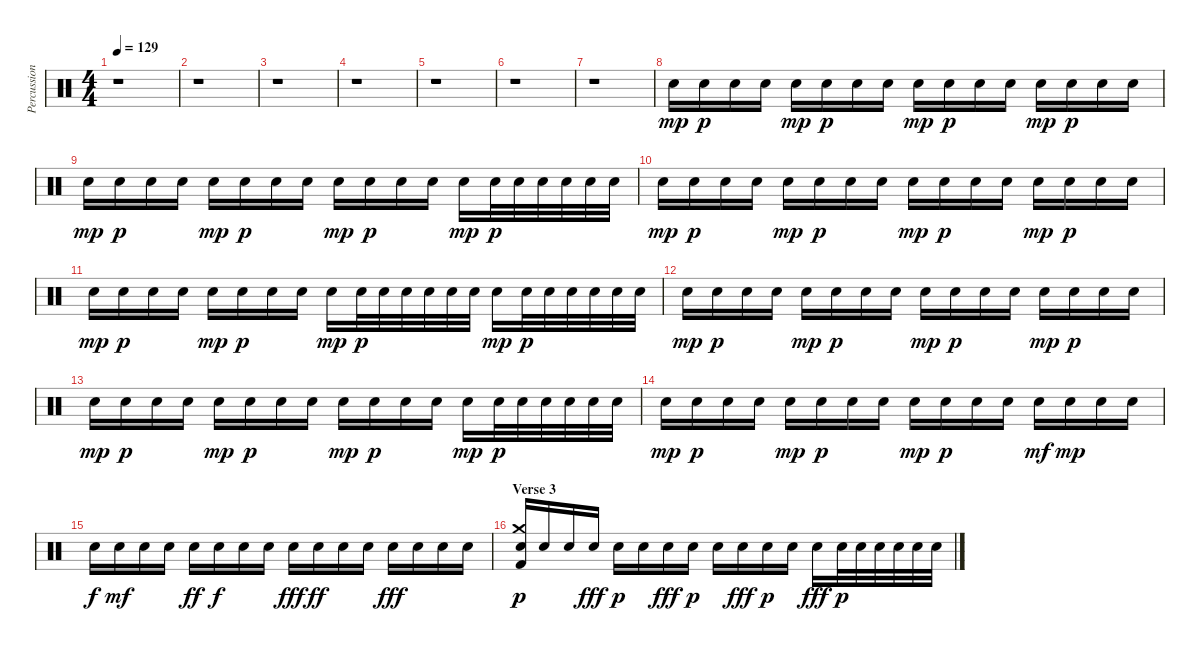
\track ("Percussions" "Percussion") {instrument percussion}
\staff {score}
\articulation defaults
\ts (4 4)
\tempo 129
\clef neutral
\ks c
r.1{dy f} |
r.1 |
r.1 |
r.1 |
r.1 |
r.1 |
r.1 |
"Snare (hit) 2".16{dy mp} "Snare (hit) 2".16{dy p} "Snare (hit) 2".16 "Snare (hit) 2".16 "Snare (hit) 2".16{dy mp} "Snare (hit) 2".16{dy p} "Snare (hit) 2".16 "Snare (hit) 2".16 "Snare (hit) 2".16{dy mp} "Snare (hit) 2".16{dy p} "Snare (hit) 2".16 "Snare (hit) 2".16 "Snare (hit) 2".16{dy mp} "Snare (hit) 2".16{dy p} "Snare (hit) 2".16 "Snare (hit) 2".16 |
"Snare (hit) 2".16{dy mp} "Snare (hit) 2".16{dy p} "Snare (hit) 2".16 "Snare (hit) 2".16 "Snare (hit) 2".16{dy mp} "Snare (hit) 2".16{dy p} "Snare (hit) 2".16 "Snare (hit) 2".16 "Snare (hit) 2".16{dy mp} "Snare (hit) 2".16{dy p} "Snare (hit) 2".16 "Snare (hit) 2".16 "Snare (hit) 2".16{dy mp} "Snare (hit) 2".32{dy p} "Snare (hit) 2".32 "Snare (hit) 2".32 "Snare (hit) 2".32 "Snare (hit) 2".32 "Snare (hit) 2".32 |
"Snare (hit) 2".16{dy mp} "Snare (hit) 2".16{dy p} "Snare (hit) 2".16 "Snare (hit) 2".16 "Snare (hit) 2".16{dy mp} "Snare (hit) 2".16{dy p} "Snare (hit) 2".16 "Snare (hit) 2".16 "Snare (hit) 2".16{dy mp} "Snare (hit) 2".16{dy p} "Snare (hit) 2".16 "Snare (hit) 2".16 "Snare (hit) 2".16{dy mp} "Snare (hit) 2".16{dy p} "Snare (hit) 2".16 "Snare (hit) 2".16 |
"Snare (hit) 2".16{dy mp} "Snare (hit) 2".16{dy p} "Snare (hit) 2".16 "Snare (hit) 2".16 "Snare (hit) 2".16{dy mp} "Snare (hit) 2".16{dy p} "Snare (hit) 2".16 "Snare (hit) 2".16 "Snare (hit) 2".16{dy mp} "Snare (hit) 2".32{dy p} "Snare (hit) 2".32 "Snare (hit) 2".32 "Snare (hit) 2".32 "Snare (hit) 2".32 "Snare (hit) 2".32 "Snare (hit) 2".16{dy mp} "Snare (hit) 2".32{dy p} "Snare (hit) 2".32 "Snare (hit) 2".32 "Snare (hit) 2".32 "Snare (hit) 2".32 "Snare (hit) 2".32 |
"Snare (hit) 2".16{dy mp} "Snare (hit) 2".16{dy p} "Snare (hit) 2".16 "Snare (hit) 2".16 "Snare (hit) 2".16{dy mp} "Snare (hit) 2".16{dy p} "Snare (hit) 2".16 "Snare (hit) 2".16 "Snare (hit) 2".16{dy mp} "Snare (hit) 2".16{dy p} "Snare (hit) 2".16 "Snare (hit) 2".16 "Snare (hit) 2".16{dy mp} "Snare (hit) 2".16{dy p} "Snare (hit) 2".16 "Snare (hit) 2".16 |
"Snare (hit) 2".16{dy mp} "Snare (hit) 2".16{dy p} "Snare (hit) 2".16 "Snare (hit) 2".16 "Snare (hit) 2".16{dy mp} "Snare (hit) 2".16{dy p} "Snare (hit) 2".16 "Snare (hit) 2".16 "Snare (hit) 2".16{dy mp} "Snare (hit) 2".16{dy p} "Snare (hit) 2".16 "Snare (hit) 2".16 "Snare (hit) 2".16{dy mp} "Snare (hit) 2".32{dy p} "Snare (hit) 2".32 "Snare (hit) 2".32 "Snare (hit) 2".32 "Snare (hit) 2".32 "Snare (hit) 2".32 |
"Snare (hit) 2".16{dy mp} "Snare (hit) 2".16{dy p} "Snare (hit) 2".16 "Snare (hit) 2".16 "Snare (hit) 2".16{dy mp} "Snare (hit) 2".16{dy p} "Snare (hit) 2".16 "Snare (hit) 2".16 "Snare (hit) 2".16{dy mp} "Snare (hit) 2".16{dy p} "Snare (hit) 2".16 "Snare (hit) 2".16 "Snare (hit) 2".16{dy mf} "Snare (hit) 2".16{dy mp} "Snare (hit) 2".16 "Snare (hit) 2".16 |
"Snare (hit) 2".16{dy f} "Snare (hit) 2".16{dy mf} "Snare (hit) 2".16 "Snare (hit) 2".16 "Snare (hit) 2".16{dy ff} "Snare (hit) 2".16{dy f} "Snare (hit) 2".16 "Snare (hit) 2".16 "Snare (hit) 2".16{dy fff} "Snare (hit) 2".16{dy ff} "Snare (hit) 2".16 "Snare (hit) 2".16 "Snare (hit) 2".16{dy fff} "Snare (hit) 2".16 "Snare (hit) 2".16 "Snare (hit) 2".16 |
\section ("" "Verse 3")
("Crash medium (hit)" "Snare (hit) 2" "Kick (hit) 2").16{dy p} "Snare (hit) 2".16 "Snare (hit) 2".16 "Snare (hit) 2".16{dy fff} "Snare (hit) 2".16{dy p} "Snare (hit) 2".16 "Snare (hit) 2".16{dy fff} "Snare (hit) 2".16{dy p} "Snare (hit) 2".16 "Snare (hit) 2".16{dy fff} "Snare (hit) 2".16{dy p} "Snare (hit) 2".16 "Snare (hit) 2".16{dy fff} "Snare (hit) 2".32{dy p} "Snare (hit) 2".32 "Snare (hit) 2".32 "Snare (hit) 2".32 "Snare (hit) 2".32 "Snare (hit) 2".32
